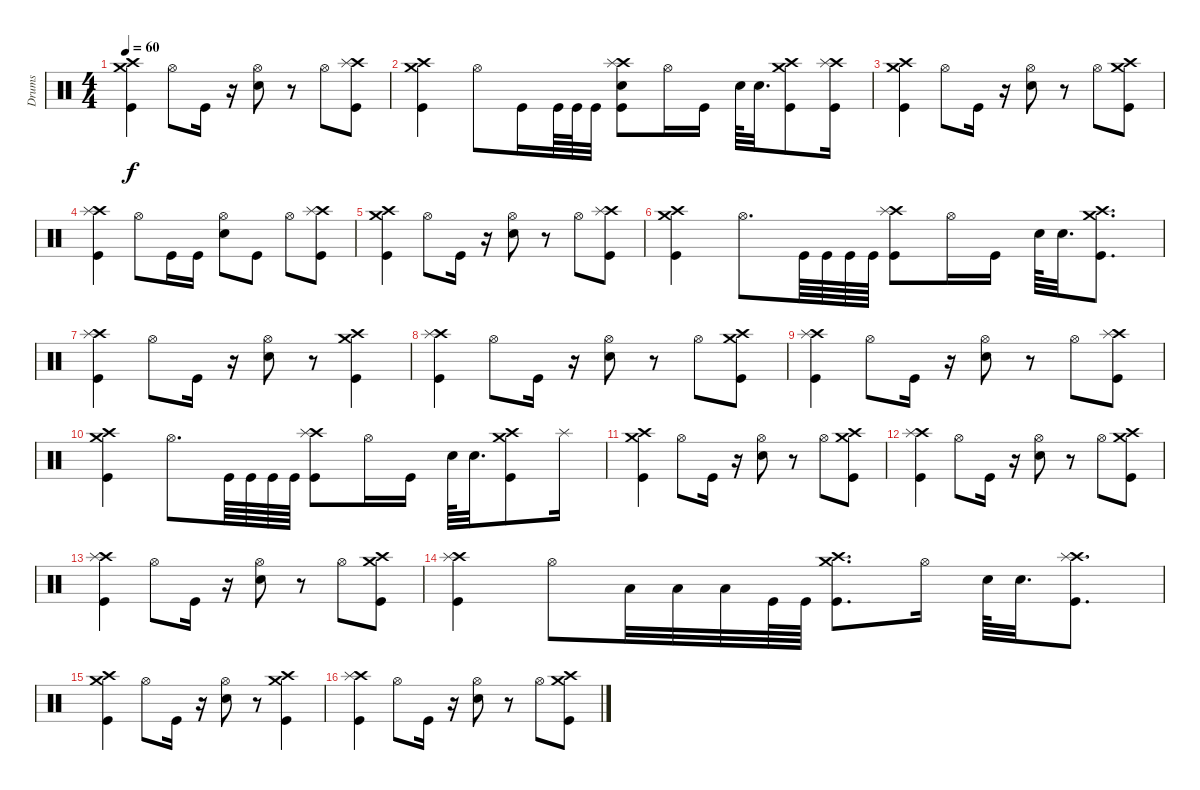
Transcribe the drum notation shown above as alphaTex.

\track ("Drums" "Drums") {instrument percussion}
\staff {score}
\articulation defaults
\ts (4 4)
\tempo 60
\clef neutral
\ks c
("Crash high (hit)" "Crash medium (hit)" "Kick (hit)").4{dy f} "Hi-Hat (open)".8 "Kick (hit)".16 r.16 ("Hi-Hat (open)" "Electric Snare (hit)").8 r.8 "Hi-Hat (open)".8 ("Crash high (hit)" "Splash (hit)" "Kick (hit)").8 |
("Crash high (hit)" "Crash medium (hit)" "Kick (hit)").4 "Hi-Hat (open)".8 "Kick (hit)".16 "Kick (hit)".64 "Kick (hit)".64 "Kick (hit)".32 ("Crash high (hit)" "Splash (hit)" "Electric Snare (hit)" "Kick (hit)").8 "Hi-Hat (open)".16 "Kick (hit)".16 "Electric Snare (hit)".64 "Electric Snare (hit)".32{d} ("Crash high (hit)" "Crash medium (hit)" "Kick (hit)").8 ("Crash high (hit)" "Splash (hit)" "Kick (hit)").16 |
("Crash high (hit)" "Crash medium (hit)" "Kick (hit)").4 "Hi-Hat (open)".8 "Kick (hit)".16 r.16 ("Hi-Hat (open)" "Electric Snare (hit)").8 r.8 "Hi-Hat (open)".8 ("Crash high (hit)" "Crash medium (hit)" "Kick (hit)").8 |
("Crash high (hit)" "Splash (hit)" "Kick (hit)").4 "Hi-Hat (open)".8 "Kick (hit)".16 "Kick (hit)".16 ("Hi-Hat (open)" "Electric Snare (hit)").8 "Kick (hit)".8 "Hi-Hat (open)".8 ("Crash high (hit)" "Splash (hit)" "Kick (hit)").8 |
("Crash high (hit)" "Crash medium (hit)" "Kick (hit)").4 "Hi-Hat (open)".8 "Kick (hit)".16 r.16 ("Hi-Hat (open)" "Electric Snare (hit)").8 r.8 "Hi-Hat (open)".8 ("Crash high (hit)" "Splash (hit)" "Kick (hit)").8 |
("Crash high (hit)" "Crash medium (hit)" "Kick (hit)").4 "Hi-Hat (open)".8{d} "Kick (hit)".64 "Kick (hit)".64 "Kick (hit)".64 "Kick (hit)".64 ("Crash high (hit)" "Splash (hit)" "Kick (hit)").8 "Hi-Hat (open)".16 "Kick (hit)".16 "Electric Snare (hit)".64 "Electric Snare (hit)".32{d} ("Crash high (hit)" "Crash medium (hit)" "Kick (hit)").8{d} |
("Crash high (hit)" "Splash (hit)" "Kick (hit)").4 "Hi-Hat (open)".8 "Kick (hit)".16 r.16 ("Hi-Hat (open)" "Electric Snare (hit)").8 r.8 ("Crash high (hit)" "Crash medium (hit)" "Kick (hit)").4 |
("Crash high (hit)" "Splash (hit)" "Kick (hit)").4 "Hi-Hat (open)".8 "Kick (hit)".16 r.16 ("Hi-Hat (open)" "Electric Snare (hit)").8 r.8 "Hi-Hat (open)".8 ("Crash high (hit)" "Crash medium (hit)" "Kick (hit)").8 |
("Crash high (hit)" "Splash (hit)" "Kick (hit)").4 "Hi-Hat (open)".8 "Kick (hit)".16 r.16 ("Hi-Hat (open)" "Electric Snare (hit)").8 r.8 "Hi-Hat (open)".8 ("Crash high (hit)" "Splash (hit)" "Kick (hit)").8 |
("Crash high (hit)" "Crash medium (hit)" "Kick (hit)").4 "Hi-Hat (open)".8{d} "Kick (hit)".64 "Kick (hit)".64 "Kick (hit)".64 "Kick (hit)".64 ("Crash high (hit)" "Splash (hit)" "Kick (hit)").8 "Hi-Hat (open)".16 "Kick (hit)".16 "Electric Snare (hit)".64 "Electric Snare (hit)".32{d} ("Crash high (hit)" "Crash medium (hit)" "Kick (hit)").8 "Splash (hit)".16 |
("Crash high (hit)" "Crash medium (hit)" "Kick (hit)").4 "Hi-Hat (open)".8 "Kick (hit)".16 r.16 ("Hi-Hat (open)" "Electric Snare (hit)").8 r.8 "Hi-Hat (open)".8 ("Crash high (hit)" "Crash medium (hit)" "Kick (hit)").8 |
("Crash high (hit)" "Splash (hit)" "Kick (hit)").4 "Hi-Hat (open)".8 "Kick (hit)".16 r.16 ("Hi-Hat (open)" "Electric Snare (hit)").8 r.8 "Hi-Hat (open)".8 ("Crash high (hit)" "Crash medium (hit)" "Kick (hit)").8 |
("Crash high (hit)" "Splash (hit)" "Kick (hit)").4 "Hi-Hat (open)".8 "Kick (hit)".16 r.16 ("Hi-Hat (open)" "Electric Snare (hit)").8 r.8 "Hi-Hat (open)".8 ("Crash high (hit)" "Crash medium (hit)" "Kick (hit)").8 |
("Crash high (hit)" "Splash (hit)" "Kick (hit)").4 "Hi-Hat (open)".8 "Low Tom (hit)".32 "Low Tom (hit)".32 "Low Tom (hit)".32 "Kick (hit)".64 "Kick (hit)".64 ("Crash high (hit)" "Crash medium (hit)" "Kick (hit)").8{d} "Hi-Hat (open)".16 "Electric Snare (hit)".64 "Electric Snare (hit)".32{d} ("Crash high (hit)" "Splash (hit)" "Kick (hit)").8{d} |
("Crash high (hit)" "Crash medium (hit)" "Kick (hit)").4 "Hi-Hat (open)".8 "Kick (hit)".16 r.16 ("Hi-Hat (open)" "Electric Snare (hit)").8 r.8 ("Crash high (hit)" "Crash medium (hit)" "Kick (hit)").4 |
("Crash high (hit)" "Splash (hit)" "Kick (hit)").4 "Hi-Hat (open)".8 "Kick (hit)".16 r.16 ("Hi-Hat (open)" "Electric Snare (hit)").8 r.8 "Hi-Hat (open)".8 ("Crash high (hit)" "Crash medium (hit)" "Kick (hit)").8
